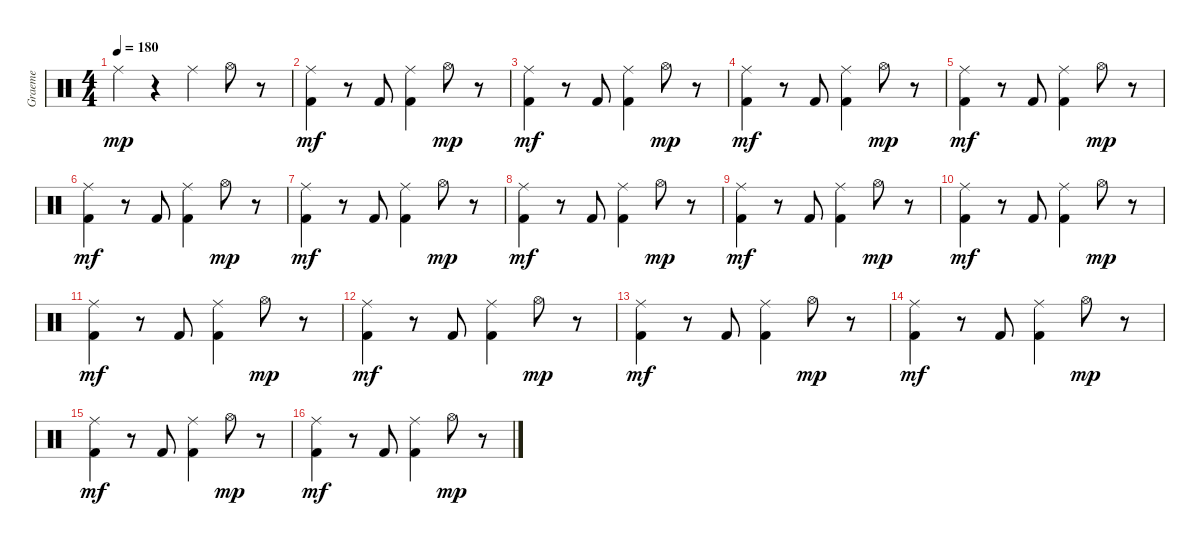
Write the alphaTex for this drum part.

\track ("Graeme" "Graeme") {instrument percussion}
\staff {score}
\articulation defaults
\ts (4 4)
\tempo 180
\clef neutral
\ks c "Ride (middle)".4{dy mp}
r.4 "Ride (middle)".4 "Hi-Hat (open)".8 r.8 |
("Ride (middle)" "Kick (hit) 2").4{dy mf} r.8 "Kick (hit) 2".8 ("Ride (middle)" "Kick (hit) 2").4 "Hi-Hat (open)".8{dy mp} r.8 |
("Ride (middle)" "Kick (hit) 2").4{dy mf} r.8 "Kick (hit) 2".8 ("Ride (middle)" "Kick (hit) 2").4 "Hi-Hat (open)".8{dy mp} r.8 |
("Ride (middle)" "Kick (hit) 2").4{dy mf} r.8 "Kick (hit) 2".8 ("Ride (middle)" "Kick (hit) 2").4 "Hi-Hat (open)".8{dy mp} r.8 |
("Ride (middle)" "Kick (hit) 2").4{dy mf} r.8 "Kick (hit) 2".8 ("Ride (middle)" "Kick (hit) 2").4 "Hi-Hat (open)".8{dy mp} r.8 |
("Ride (middle)" "Kick (hit) 2").4{dy mf} r.8 "Kick (hit) 2".8 ("Ride (middle)" "Kick (hit) 2").4 "Hi-Hat (open)".8{dy mp} r.8 |
("Ride (middle)" "Kick (hit) 2").4{dy mf} r.8 "Kick (hit) 2".8 ("Ride (middle)" "Kick (hit) 2").4 "Hi-Hat (open)".8{dy mp} r.8 |
("Ride (middle)" "Kick (hit) 2").4{dy mf} r.8 "Kick (hit) 2".8 ("Ride (middle)" "Kick (hit) 2").4 "Hi-Hat (open)".8{dy mp} r.8 |
("Ride (middle)" "Kick (hit) 2").4{dy mf} r.8 "Kick (hit) 2".8 ("Ride (middle)" "Kick (hit) 2").4 "Hi-Hat (open)".8{dy mp} r.8 |
("Ride (middle)" "Kick (hit) 2").4{dy mf} r.8 "Kick (hit) 2".8 ("Ride (middle)" "Kick (hit) 2").4 "Hi-Hat (open)".8{dy mp} r.8 |
("Ride (middle)" "Kick (hit) 2").4{dy mf} r.8 "Kick (hit) 2".8 ("Ride (middle)" "Kick (hit) 2").4 "Hi-Hat (open)".8{dy mp} r.8 |
("Ride (middle)" "Kick (hit) 2").4{dy mf} r.8 "Kick (hit) 2".8 ("Ride (middle)" "Kick (hit) 2").4 "Hi-Hat (open)".8{dy mp} r.8 |
("Ride (middle)" "Kick (hit) 2").4{dy mf} r.8 "Kick (hit) 2".8 ("Ride (middle)" "Kick (hit) 2").4 "Hi-Hat (open)".8{dy mp} r.8 |
("Ride (middle)" "Kick (hit) 2").4{dy mf} r.8 "Kick (hit) 2".8 ("Ride (middle)" "Kick (hit) 2").4 "Hi-Hat (open)".8{dy mp} r.8 |
("Ride (middle)" "Kick (hit) 2").4{dy mf} r.8 "Kick (hit) 2".8 ("Ride (middle)" "Kick (hit) 2").4 "Hi-Hat (open)".8{dy mp} r.8 |
("Ride (middle)" "Kick (hit) 2").4{dy mf} r.8 "Kick (hit) 2".8 ("Ride (middle)" "Kick (hit) 2").4 "Hi-Hat (open)".8{dy mp} r.8
